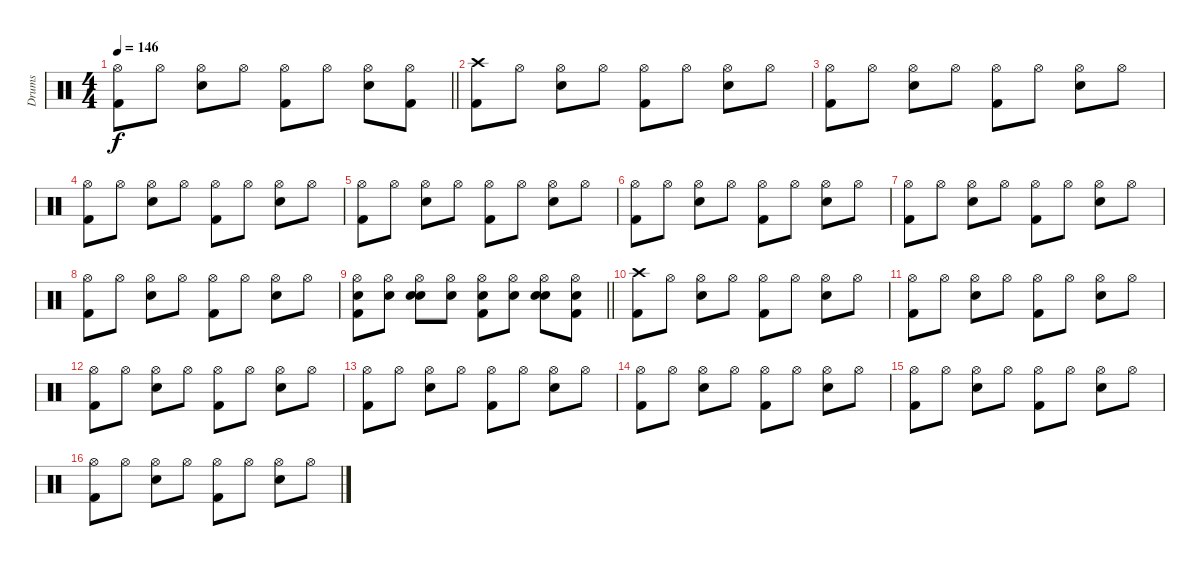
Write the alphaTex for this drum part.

\track ("Drums" "Drums") {instrument percussion}
\staff {score}
\articulation defaults
\ts (4 4)
\tempo 146
\clef neutral
\barLineRight lightlight
\ks c
("Hi-Hat (open)" "Kick (hit) 2").8{dy f} "Hi-Hat (open)".8 ("Hi-Hat (open)" "Snare (hit) 2").8 "Hi-Hat (open)".8 ("Hi-Hat (open)" "Kick (hit) 2").8 "Hi-Hat (open)".8 ("Hi-Hat (open)" "Snare (hit) 2").8 ("Hi-Hat (open)" "Kick (hit) 2").8 |
("Crash high (hit)" "Kick (hit) 2").8 "Hi-Hat (open)".8 ("Hi-Hat (open)" "Snare (hit) 2").8 "Hi-Hat (open)".8 ("Hi-Hat (open)" "Kick (hit) 2").8 "Hi-Hat (open)".8 ("Hi-Hat (open)" "Snare (hit) 2").8 "Hi-Hat (open)".8 |
("Hi-Hat (open)" "Kick (hit) 2").8 "Hi-Hat (open)".8 ("Hi-Hat (open)" "Snare (hit) 2").8 "Hi-Hat (open)".8 ("Hi-Hat (open)" "Kick (hit) 2").8 "Hi-Hat (open)".8 ("Hi-Hat (open)" "Snare (hit) 2").8 "Hi-Hat (open)".8 |
("Hi-Hat (open)" "Kick (hit) 2").8 "Hi-Hat (open)".8 ("Hi-Hat (open)" "Snare (hit) 2").8 "Hi-Hat (open)".8 ("Hi-Hat (open)" "Kick (hit) 2").8 "Hi-Hat (open)".8 ("Hi-Hat (open)" "Snare (hit) 2").8 "Hi-Hat (open)".8 |
("Hi-Hat (open)" "Kick (hit) 2").8 "Hi-Hat (open)".8 ("Hi-Hat (open)" "Snare (hit) 2").8 "Hi-Hat (open)".8 ("Hi-Hat (open)" "Kick (hit) 2").8 "Hi-Hat (open)".8 ("Hi-Hat (open)" "Snare (hit) 2").8 "Hi-Hat (open)".8 |
("Hi-Hat (open)" "Kick (hit) 2").8 "Hi-Hat (open)".8 ("Hi-Hat (open)" "Snare (hit) 2").8 "Hi-Hat (open)".8 ("Hi-Hat (open)" "Kick (hit) 2").8 "Hi-Hat (open)".8 ("Hi-Hat (open)" "Snare (hit) 2").8 "Hi-Hat (open)".8 |
("Hi-Hat (open)" "Kick (hit) 2").8 "Hi-Hat (open)".8 ("Hi-Hat (open)" "Snare (hit) 2").8 "Hi-Hat (open)".8 ("Hi-Hat (open)" "Kick (hit) 2").8 "Hi-Hat (open)".8 ("Hi-Hat (open)" "Snare (hit) 2").8 "Hi-Hat (open)".8 |
("Hi-Hat (open)" "Kick (hit) 2").8 "Hi-Hat (open)".8 ("Hi-Hat (open)" "Snare (hit) 2").8 "Hi-Hat (open)".8 ("Hi-Hat (open)" "Kick (hit) 2").8 "Hi-Hat (open)".8 ("Hi-Hat (open)" "Snare (hit) 2").8 "Hi-Hat (open)".8 |
\barLineRight lightlight
("Hi-Hat (open)" "Snare (hit) 2" "Kick (hit) 2").8 ("Hi-Hat (open)" "Snare (hit) 2").8 ("Hi-Hat (open)" "Snare (hit) 2" "Snare (hit) 2").8 ("Hi-Hat (open)" "Snare (hit) 2").8 ("Hi-Hat (open)" "Snare (hit) 2" "Kick (hit) 2").8 ("Hi-Hat (open)" "Snare (hit) 2").8 ("Hi-Hat (open)" "Snare (hit) 2" "Snare (hit) 2").8 ("Hi-Hat (open)" "Snare (hit) 2" "Kick (hit) 2").8 |
("Crash high (hit)" "Kick (hit) 2").8 "Hi-Hat (open)".8 ("Hi-Hat (open)" "Snare (hit) 2").8 "Hi-Hat (open)".8 ("Hi-Hat (open)" "Kick (hit) 2").8 "Hi-Hat (open)".8 ("Hi-Hat (open)" "Snare (hit) 2").8 "Hi-Hat (open)".8 |
("Hi-Hat (open)" "Kick (hit) 2").8 "Hi-Hat (open)".8 ("Hi-Hat (open)" "Snare (hit) 2").8 "Hi-Hat (open)".8 ("Hi-Hat (open)" "Kick (hit) 2").8 "Hi-Hat (open)".8 ("Hi-Hat (open)" "Snare (hit) 2").8 "Hi-Hat (open)".8 |
("Hi-Hat (open)" "Kick (hit) 2").8 "Hi-Hat (open)".8 ("Hi-Hat (open)" "Snare (hit) 2").8 "Hi-Hat (open)".8 ("Hi-Hat (open)" "Kick (hit) 2").8 "Hi-Hat (open)".8 ("Hi-Hat (open)" "Snare (hit) 2").8 "Hi-Hat (open)".8 |
("Hi-Hat (open)" "Kick (hit) 2").8 "Hi-Hat (open)".8 ("Hi-Hat (open)" "Snare (hit) 2").8 "Hi-Hat (open)".8 ("Hi-Hat (open)" "Kick (hit) 2").8 "Hi-Hat (open)".8 ("Hi-Hat (open)" "Snare (hit) 2").8 "Hi-Hat (open)".8 |
("Hi-Hat (open)" "Kick (hit) 2").8 "Hi-Hat (open)".8 ("Hi-Hat (open)" "Snare (hit) 2").8 "Hi-Hat (open)".8 ("Hi-Hat (open)" "Kick (hit) 2").8 "Hi-Hat (open)".8 ("Hi-Hat (open)" "Snare (hit) 2").8 "Hi-Hat (open)".8 |
("Hi-Hat (open)" "Kick (hit) 2").8 "Hi-Hat (open)".8 ("Hi-Hat (open)" "Snare (hit) 2").8 "Hi-Hat (open)".8 ("Hi-Hat (open)" "Kick (hit) 2").8 "Hi-Hat (open)".8 ("Hi-Hat (open)" "Snare (hit) 2").8 "Hi-Hat (open)".8 |
("Hi-Hat (open)" "Kick (hit) 2").8 "Hi-Hat (open)".8 ("Hi-Hat (open)" "Snare (hit) 2").8 "Hi-Hat (open)".8 ("Hi-Hat (open)" "Kick (hit) 2").8 "Hi-Hat (open)".8 ("Hi-Hat (open)" "Snare (hit) 2").8 "Hi-Hat (open)".8
